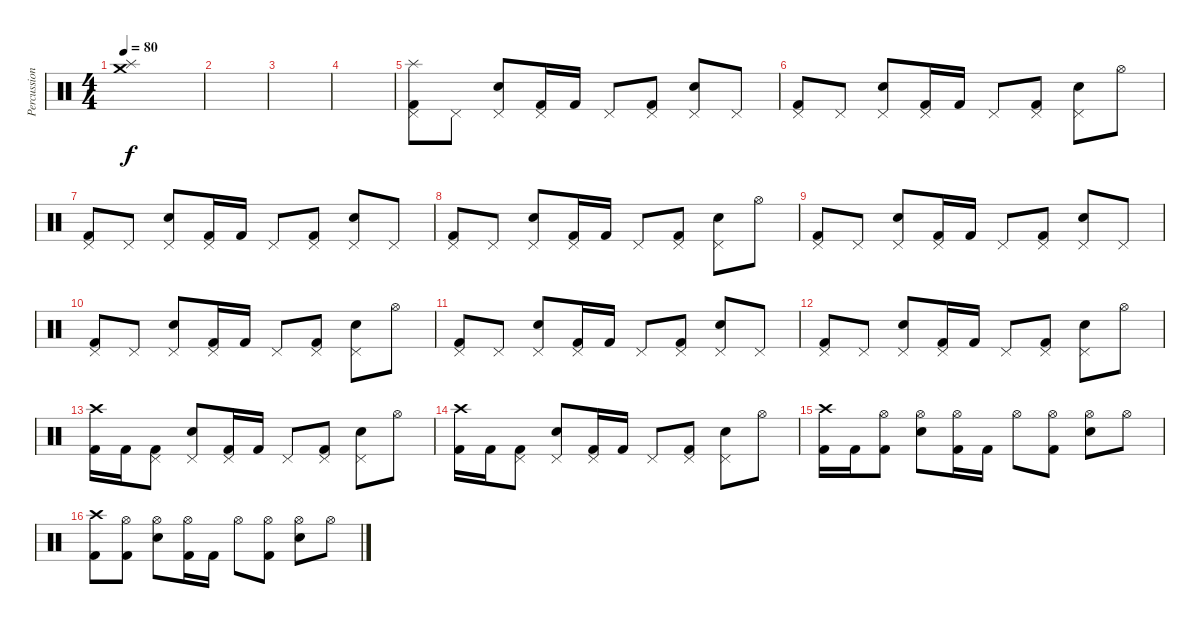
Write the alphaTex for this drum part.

\track ("Percussion" "Percussion") {instrument percussion}
\staff {score}
\articulation defaults
\ts (4 4)
\tempo 80
\clef neutral
\ks c
("Crash medium (hit)" "Splash (hit)").1{dy f} |
|
|
|
("Pedal Hi-Hat (hit)" "Kick (hit) 2" "Splash (hit)").8 "Pedal Hi-Hat (hit)".8 ("Electric Snare (hit)" "Pedal Hi-Hat (hit)").8 ("Pedal Hi-Hat (hit)" "Kick (hit) 2").16 "Kick (hit) 2".16 "Pedal Hi-Hat (hit)".8 ("Pedal Hi-Hat (hit)" "Kick (hit) 2").8 ("Electric Snare (hit)" "Pedal Hi-Hat (hit)").8 "Pedal Hi-Hat (hit)".8 |
("Pedal Hi-Hat (hit)" "Kick (hit) 2").8 "Pedal Hi-Hat (hit)".8 ("Electric Snare (hit)" "Pedal Hi-Hat (hit)").8 ("Pedal Hi-Hat (hit)" "Kick (hit) 2").16 "Kick (hit) 2".16 "Pedal Hi-Hat (hit)".8 ("Pedal Hi-Hat (hit)" "Kick (hit) 2").8 ("Electric Snare (hit)" "Pedal Hi-Hat (hit)").8 "Hi-Hat (open)".8 |
("Pedal Hi-Hat (hit)" "Kick (hit) 2").8 "Pedal Hi-Hat (hit)".8 ("Electric Snare (hit)" "Pedal Hi-Hat (hit)").8 ("Pedal Hi-Hat (hit)" "Kick (hit) 2").16 "Kick (hit) 2".16 "Pedal Hi-Hat (hit)".8 ("Pedal Hi-Hat (hit)" "Kick (hit) 2").8 ("Electric Snare (hit)" "Pedal Hi-Hat (hit)").8 "Pedal Hi-Hat (hit)".8 |
("Pedal Hi-Hat (hit)" "Kick (hit) 2").8 "Pedal Hi-Hat (hit)".8 ("Electric Snare (hit)" "Pedal Hi-Hat (hit)").8 ("Pedal Hi-Hat (hit)" "Kick (hit) 2").16 "Kick (hit) 2".16 "Pedal Hi-Hat (hit)".8 ("Pedal Hi-Hat (hit)" "Kick (hit) 2").8 ("Electric Snare (hit)" "Pedal Hi-Hat (hit)").8 "Hi-Hat (open)".8 |
("Pedal Hi-Hat (hit)" "Kick (hit) 2").8 "Pedal Hi-Hat (hit)".8 ("Electric Snare (hit)" "Pedal Hi-Hat (hit)").8 ("Pedal Hi-Hat (hit)" "Kick (hit) 2").16 "Kick (hit) 2".16 "Pedal Hi-Hat (hit)".8 ("Pedal Hi-Hat (hit)" "Kick (hit) 2").8 ("Electric Snare (hit)" "Pedal Hi-Hat (hit)").8 "Pedal Hi-Hat (hit)".8 |
("Pedal Hi-Hat (hit)" "Kick (hit) 2").8 "Pedal Hi-Hat (hit)".8 ("Electric Snare (hit)" "Pedal Hi-Hat (hit)").8 ("Pedal Hi-Hat (hit)" "Kick (hit) 2").16 "Kick (hit) 2".16 "Pedal Hi-Hat (hit)".8 ("Pedal Hi-Hat (hit)" "Kick (hit) 2").8 ("Electric Snare (hit)" "Pedal Hi-Hat (hit)").8 "Hi-Hat (open)".8 |
("Pedal Hi-Hat (hit)" "Kick (hit) 2").8 "Pedal Hi-Hat (hit)".8 ("Electric Snare (hit)" "Pedal Hi-Hat (hit)").8 ("Pedal Hi-Hat (hit)" "Kick (hit) 2").16 "Kick (hit) 2".16 "Pedal Hi-Hat (hit)".8 ("Pedal Hi-Hat (hit)" "Kick (hit) 2").8 ("Electric Snare (hit)" "Pedal Hi-Hat (hit)").8 "Pedal Hi-Hat (hit)".8 |
("Pedal Hi-Hat (hit)" "Kick (hit) 2").8 "Pedal Hi-Hat (hit)".8 ("Electric Snare (hit)" "Pedal Hi-Hat (hit)").8 ("Pedal Hi-Hat (hit)" "Kick (hit) 2").16 "Kick (hit) 2".16 "Pedal Hi-Hat (hit)".8 ("Pedal Hi-Hat (hit)" "Kick (hit) 2").8 ("Electric Snare (hit)" "Pedal Hi-Hat (hit)").8 "Hi-Hat (open)".8 |
("Kick (hit) 2" "Crash high (hit)").16 "Kick (hit) 2".16 ("Kick (hit) 2" "Pedal Hi-Hat (hit)").8 ("Electric Snare (hit)" "Pedal Hi-Hat (hit)").8 ("Pedal Hi-Hat (hit)" "Kick (hit) 2").16 "Kick (hit) 2".16 "Pedal Hi-Hat (hit)".8 ("Pedal Hi-Hat (hit)" "Kick (hit) 2").8 ("Electric Snare (hit)" "Pedal Hi-Hat (hit)").8 "Hi-Hat (open)".8 |
("Kick (hit) 2" "Crash high (hit)").16 "Kick (hit) 2".16 ("Kick (hit) 2" "Pedal Hi-Hat (hit)").8 ("Electric Snare (hit)" "Pedal Hi-Hat (hit)").8 ("Pedal Hi-Hat (hit)" "Kick (hit) 2").16 "Kick (hit) 2".16 "Pedal Hi-Hat (hit)".8 ("Pedal Hi-Hat (hit)" "Kick (hit) 2").8 ("Electric Snare (hit)" "Pedal Hi-Hat (hit)").8 "Hi-Hat (open)".8 |
("Kick (hit) 2" "Crash high (hit)").16 "Kick (hit) 2".16 ("Kick (hit) 2" "Hi-Hat (open)").8 ("Electric Snare (hit)" "Hi-Hat (open)").8 ("Hi-Hat (open)" "Kick (hit) 2").16 "Kick (hit) 2".16 "Hi-Hat (open)".8 ("Hi-Hat (open)" "Kick (hit) 2").8 ("Electric Snare (hit)" "Hi-Hat (open)").8 "Hi-Hat (open)".8 |
("Kick (hit) 2" "Crash high (hit)").8 ("Kick (hit) 2" "Hi-Hat (open)").8 ("Electric Snare (hit)" "Hi-Hat (open)").8 ("Hi-Hat (open)" "Kick (hit) 2").16 "Kick (hit) 2".16 "Hi-Hat (open)".8 ("Hi-Hat (open)" "Kick (hit) 2").8 ("Electric Snare (hit)" "Hi-Hat (open)").8 "Hi-Hat (open)".8
